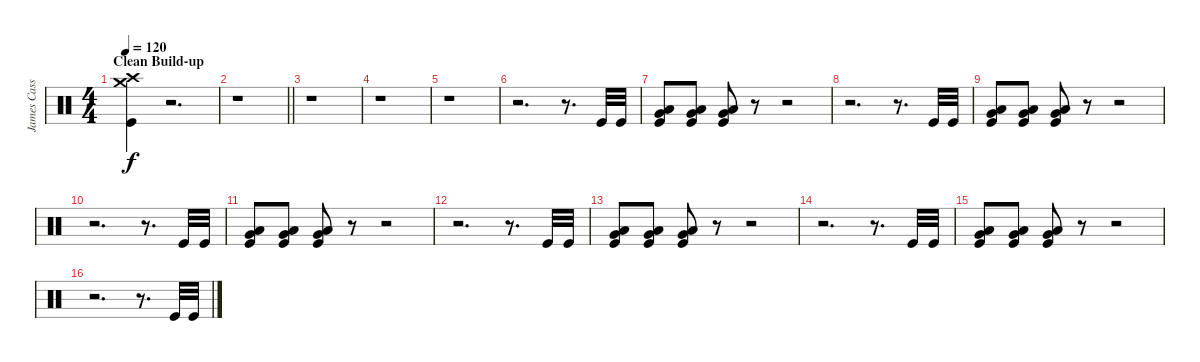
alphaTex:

\track ("James Cassells" "James Cass") {instrument percussion}
\staff {score}
\articulation defaults
\ts (4 4)
\section ("" "Clean Build-up")
\tempo 120
\clef neutral
\ks c
("Crash high (hit)" "Crash medium (hit)" "Kick (hit)").4{dy f} r.2{d} |
\barLineRight lightlight
r.1 |
r.1 |
r.1 |
r.1 |
r.2{d} r.8{d} "Kick (hit)".32 "Kick (hit)".32 |
("Very Low Tom (hit)" "Low Floor Tom (hit)" "Kick (hit)").8 ("Very Low Tom (hit)" "Low Floor Tom (hit)" "Kick (hit)").8 ("Very Low Tom (hit)" "Low Floor Tom (hit)" "Kick (hit)").8 r.8 r.2 |
r.2{d} r.8{d} "Kick (hit)".32 "Kick (hit)".32 |
("Very Low Tom (hit)" "Low Floor Tom (hit)" "Kick (hit)").8 ("Very Low Tom (hit)" "Low Floor Tom (hit)" "Kick (hit)").8 ("Very Low Tom (hit)" "Low Floor Tom (hit)" "Kick (hit)").8 r.8 r.2 |
r.2{d} r.8{d} "Kick (hit)".32 "Kick (hit)".32 |
("Very Low Tom (hit)" "Low Floor Tom (hit)" "Kick (hit)").8 ("Very Low Tom (hit)" "Low Floor Tom (hit)" "Kick (hit)").8 ("Very Low Tom (hit)" "Low Floor Tom (hit)" "Kick (hit)").8 r.8 r.2 |
r.2{d} r.8{d} "Kick (hit)".32 "Kick (hit)".32 |
("Very Low Tom (hit)" "Low Floor Tom (hit)" "Kick (hit)").8 ("Very Low Tom (hit)" "Low Floor Tom (hit)" "Kick (hit)").8 ("Very Low Tom (hit)" "Low Floor Tom (hit)" "Kick (hit)").8 r.8 r.2 |
r.2{d} r.8{d} "Kick (hit)".32 "Kick (hit)".32 |
("Very Low Tom (hit)" "Low Floor Tom (hit)" "Kick (hit)").8 ("Very Low Tom (hit)" "Low Floor Tom (hit)" "Kick (hit)").8 ("Very Low Tom (hit)" "Low Floor Tom (hit)" "Kick (hit)").8 r.8 r.2 |
r.2{d} r.8{d} "Kick (hit)".32 "Kick (hit)".32
